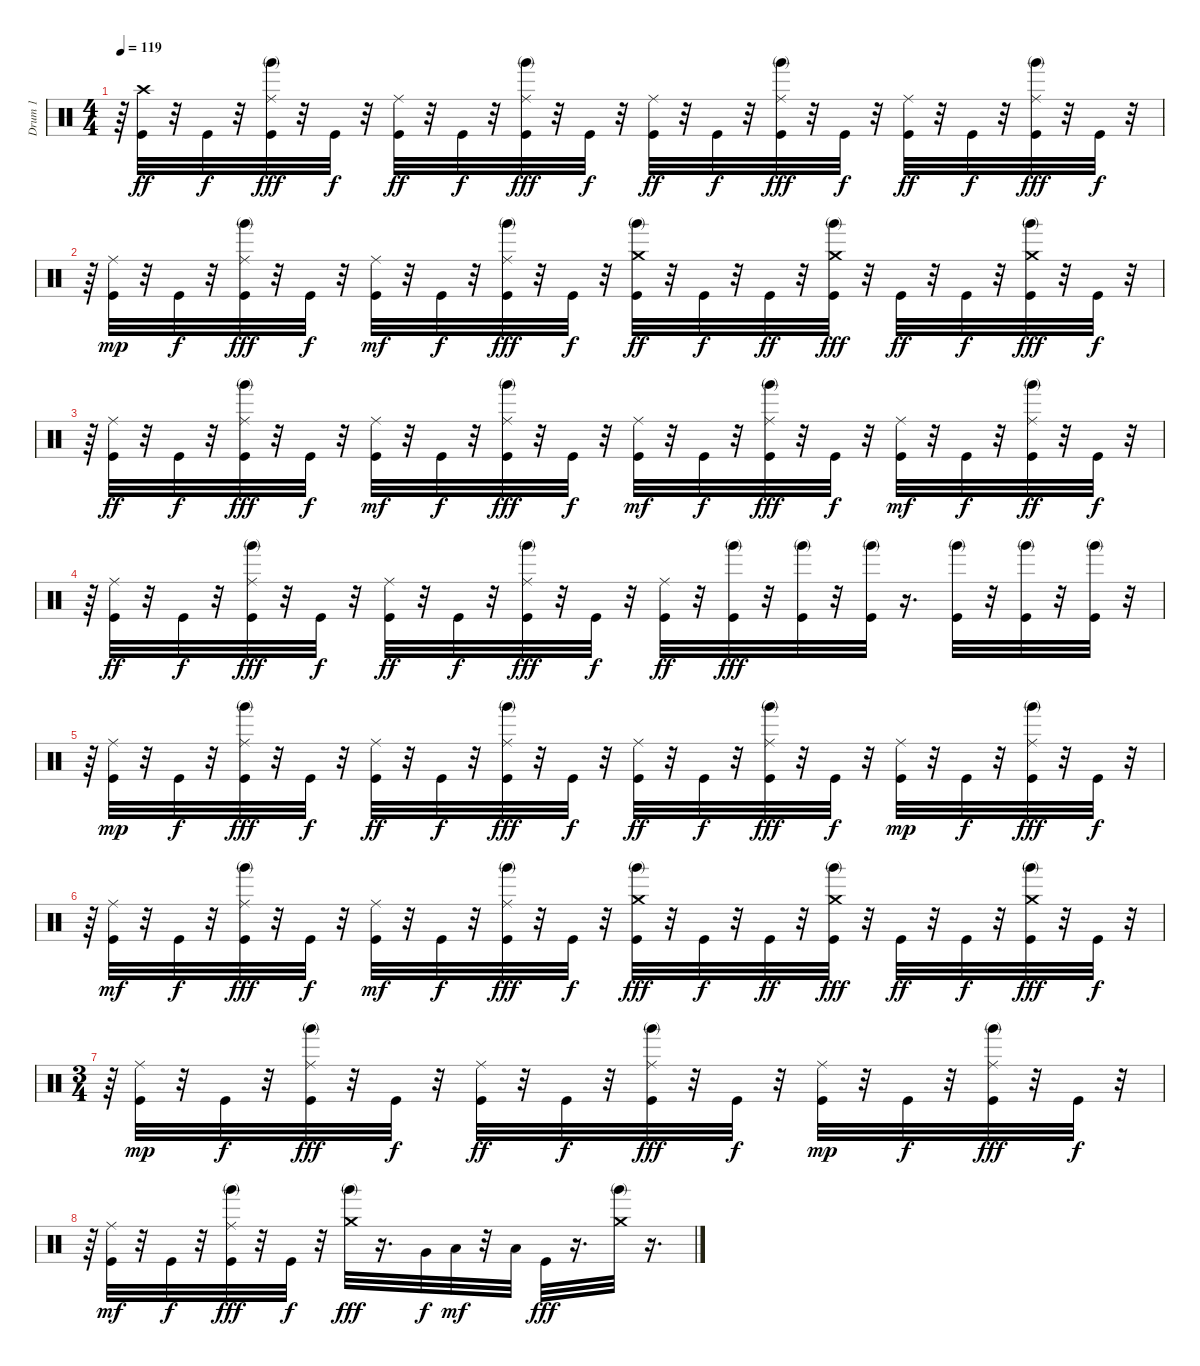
\track ("Drum 1                          " "Drum 1    ") {instrument percussion}
\staff {score}
\articulation defaults
\ts (4 4)
\tempo 119
\clef neutral
\ks c
r.64{dy ff} ("Crash high (hit)" "Kick (hit)").32 r.32 "Kick (hit)".32{dy f} r.32 ("Kick (hit)" "Ride (middle)" "Hand (mute) 2").32{dy fff} r.32 "Kick (hit)".32{dy f} r.32 ("Ride (middle)" "Kick (hit)").32{dy ff} r.32 "Kick (hit)".32{dy f} r.32 ("Ride (middle)" "Kick (hit)" "Hand (mute) 2").32{dy fff} r.32 "Kick (hit)".32{dy f} r.32 ("Ride (middle)" "Kick (hit)").32{dy ff} r.32 "Kick (hit)".32{dy f} r.32 ("Ride (middle)" "Kick (hit)" "Hand (mute) 2").32{dy fff} r.32 "Kick (hit)".32{dy f} r.32 ("Kick (hit)" "Ride (middle)").32{dy ff} r.32 "Kick (hit)".32{dy f} r.32 ("Kick (hit)" "Ride (middle)" "Hand (mute) 2").32{dy fff} r.32 "Kick (hit)".32{dy f} r.32 |
r.64 ("Kick (hit)" "Ride (middle)").32{dy mp} r.32 "Kick (hit)".32{dy f} r.32 ("Ride (middle)" "Kick (hit)" "Hand (mute) 2").32{dy fff} r.32 "Kick (hit)".32{dy f} r.32 ("Kick (hit)" "Ride (middle)").32{dy mf} r.32 "Kick (hit)".32{dy f} r.32 ("Kick (hit)" "Ride (middle)" "Hand (mute) 2").32{dy fff} r.32 "Kick (hit)".32{dy f} r.32 ("Hand (mute) 2" "Crash medium (hit)" "Kick (hit)").32{dy ff} r.32 "Kick (hit)".32{dy f} r.32 "Kick (hit)".32{dy ff} r.32 ("Hand (mute) 2" "Crash medium (hit)" "Kick (hit)").32{dy fff} r.32 "Kick (hit)".32{dy ff} r.32 "Kick (hit)".32{dy f} r.32 ("Kick (hit)" "Crash medium (hit)" "Hand (mute) 2").32{dy fff} r.32 "Kick (hit)".32{dy f} r.32 |
r.64 ("Ride (middle)" "Kick (hit)").32{dy ff} r.32 "Kick (hit)".32{dy f} r.32 ("Ride (middle)" "Kick (hit)" "Hand (mute) 2").32{dy fff} r.32 "Kick (hit)".32{dy f} r.32 ("Kick (hit)" "Ride (middle)").32{dy mf} r.32 "Kick (hit)".32{dy f} r.32 ("Ride (middle)" "Kick (hit)" "Hand (mute) 2").32{dy fff} r.32 "Kick (hit)".32{dy f} r.32 ("Kick (hit)" "Ride (middle)").32{dy mf} r.32 "Kick (hit)".32{dy f} r.32 ("Ride (middle)" "Kick (hit)" "Hand (mute) 2").32{dy fff} r.32 "Kick (hit)".32{dy f} r.32 ("Kick (hit)" "Ride (middle)").32{dy mf} r.32 "Kick (hit)".32{dy f} r.32 ("Kick (hit)" "Hand (mute) 2" "Ride (middle)").32{dy ff} r.32 "Kick (hit)".32{dy f} r.32 |
r.64 ("Ride (middle)" "Kick (hit)").32{dy ff} r.32 "Kick (hit)".32{dy f} r.32 ("Ride (middle)" "Kick (hit)" "Hand (mute) 2").32{dy fff} r.32 "Kick (hit)".32{dy f} r.32 ("Ride (middle)" "Kick (hit)").32{dy ff} r.32 "Kick (hit)".32{dy f} r.32 ("Ride (middle)" "Kick (hit)" "Hand (mute) 2").32{dy fff} r.32 "Kick (hit)".32{dy f} r.32 ("Ride (middle)" "Kick (hit)").32{dy ff} r.32 ("Hand (mute) 2" "Kick (hit)").32{dy fff} r.32 ("Kick (hit)" "Hand (mute) 2").32 r.32 ("Kick (hit)" "Hand (mute) 2").32 r.16{d} ("Hand (mute) 2" "Kick (hit)").32 r.32 ("Kick (hit)" "Hand (mute) 2").32 r.32 ("Hand (mute) 2" "Kick (hit)").32 r.32 |
r.64 ("Kick (hit)" "Ride (middle)").32{dy mp} r.32 "Kick (hit)".32{dy f} r.32 ("Ride (middle)" "Kick (hit)" "Hand (mute) 2").32{dy fff} r.32 "Kick (hit)".32{dy f} r.32 ("Ride (middle)" "Kick (hit)").32{dy ff} r.32 "Kick (hit)".32{dy f} r.32 ("Kick (hit)" "Ride (middle)" "Hand (mute) 2").32{dy fff} r.32 "Kick (hit)".32{dy f} r.32 ("Ride (middle)" "Kick (hit)").32{dy ff} r.32 "Kick (hit)".32{dy f} r.32 ("Kick (hit)" "Ride (middle)" "Hand (mute) 2").32{dy fff} r.32 "Kick (hit)".32{dy f} r.32 ("Kick (hit)" "Ride (middle)").32{dy mp} r.32 "Kick (hit)".32{dy f} r.32 ("Kick (hit)" "Ride (middle)" "Hand (mute) 2").32{dy fff} r.32 "Kick (hit)".32{dy f} r.32 |
r.64 ("Kick (hit)" "Ride (middle)").32{dy mf} r.32 "Kick (hit)".32{dy f} r.32 ("Ride (middle)" "Kick (hit)" "Hand (mute) 2").32{dy fff} r.32 "Kick (hit)".32{dy f} r.32 ("Kick (hit)" "Ride (middle)").32{dy mf} r.32 "Kick (hit)".32{dy f} r.32 ("Ride (middle)" "Kick (hit)" "Hand (mute) 2").32{dy fff} r.32 "Kick (hit)".32{dy f} r.32 ("Crash medium (hit)" "Kick (hit)" "Hand (mute) 2").32{dy fff} r.32 "Kick (hit)".32{dy f} r.32 "Kick (hit)".32{dy ff} r.32 ("Hand (mute) 2" "Crash medium (hit)" "Kick (hit)").32{dy fff} r.32 "Kick (hit)".32{dy ff} r.32 "Kick (hit)".32{dy f} r.32 ("Kick (hit)" "Crash medium (hit)" "Hand (mute) 2").32{dy fff} r.32 "Kick (hit)".32{dy f} r.32 |
\ts (3 4)
r.64 ("Kick (hit)" "Ride (middle)").32{dy mp} r.32 "Kick (hit)".32{dy f} r.32 ("Ride (middle)" "Kick (hit)" "Hand (mute) 2").32{dy fff} r.32 "Kick (hit)".32{dy f} r.32 ("Ride (middle)" "Kick (hit)").32{dy ff} r.32 "Kick (hit)".32{dy f} r.32 ("Ride (middle)" "Kick (hit)" "Hand (mute) 2").32{dy fff} r.32 "Kick (hit)".32{dy f} r.32 ("Kick (hit)" "Ride (middle)").32{dy mp} r.32 "Kick (hit)".32{dy f} r.32 ("Ride (middle)" "Kick (hit)" "Hand (mute) 2").32{dy fff} r.32 "Kick (hit)".32{dy f} r.32 |
r.64 ("Kick (hit)" "Ride (middle)").32{dy mf} r.32 "Kick (hit)".32{dy f} r.32 ("Kick (hit)" "Ride (middle)" "Hand (mute) 2").32{dy fff} r.32 "Kick (hit)".32{dy f} r.32 ("Crash medium (hit)" "Hand (mute) 2").32{dy fff} r.16{d} "Very Low Tom (hit)".32{dy f} "Low Tom (hit)".32{dy mf} r.32 "Low Floor Tom (hit)".32 "Kick (hit)".32{dy fff} r.16{d} ("Hand (mute) 2" "Crash medium (hit)").32 r.16{d}
